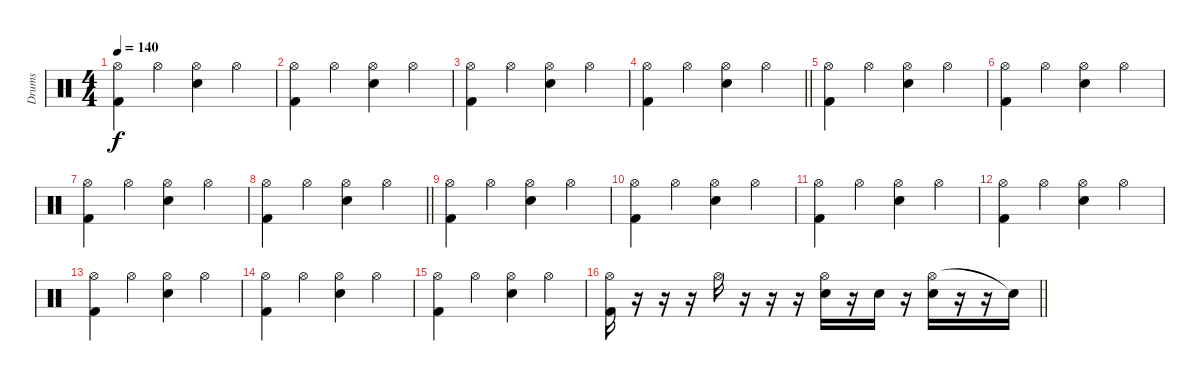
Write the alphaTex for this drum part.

\track ("Drums" "Drums") {instrument percussion}
\staff {score}
\articulation defaults
\ts (4 4)
\tempo 140
\clef neutral
\ks c
("Hi-Hat (open)" "Kick (hit) 2").4{dy f} "Hi-Hat (open)".4 ("Hi-Hat (open)" "Snare (hit) 2").4 "Hi-Hat (open)".4 |
("Hi-Hat (open)" "Kick (hit) 2").4 "Hi-Hat (open)".4 ("Hi-Hat (open)" "Snare (hit) 2").4 "Hi-Hat (open)".4 |
("Hi-Hat (open)" "Kick (hit) 2").4 "Hi-Hat (open)".4 ("Hi-Hat (open)" "Snare (hit) 2").4 "Hi-Hat (open)".4 |
\barLineRight lightlight
("Hi-Hat (open)" "Kick (hit) 2").4 "Hi-Hat (open)".4 ("Hi-Hat (open)" "Snare (hit) 2").4 "Hi-Hat (open)".4 |
("Hi-Hat (open)" "Kick (hit) 2").4 "Hi-Hat (open)".4 ("Hi-Hat (open)" "Snare (hit) 2").4 "Hi-Hat (open)".4 |
("Hi-Hat (open)" "Kick (hit) 2").4 "Hi-Hat (open)".4 ("Hi-Hat (open)" "Snare (hit) 2").4 "Hi-Hat (open)".4 |
("Hi-Hat (open)" "Kick (hit) 2").4 "Hi-Hat (open)".4 ("Hi-Hat (open)" "Snare (hit) 2").4 "Hi-Hat (open)".4 |
\barLineRight lightlight
("Hi-Hat (open)" "Kick (hit) 2").4 "Hi-Hat (open)".4 ("Hi-Hat (open)" "Snare (hit) 2").4 "Hi-Hat (open)".4 |
("Hi-Hat (open)" "Kick (hit) 2").4 "Hi-Hat (open)".4 ("Hi-Hat (open)" "Snare (hit) 2").4 "Hi-Hat (open)".4 |
("Hi-Hat (open)" "Kick (hit) 2").4 "Hi-Hat (open)".4 ("Hi-Hat (open)" "Snare (hit) 2").4 "Hi-Hat (open)".4 |
("Hi-Hat (open)" "Kick (hit) 2").4 "Hi-Hat (open)".4 ("Hi-Hat (open)" "Snare (hit) 2").4 "Hi-Hat (open)".4 |
("Hi-Hat (open)" "Kick (hit) 2").4 "Hi-Hat (open)".4 ("Hi-Hat (open)" "Snare (hit) 2").4 "Hi-Hat (open)".4 |
("Hi-Hat (open)" "Kick (hit) 2").4 "Hi-Hat (open)".4 ("Hi-Hat (open)" "Snare (hit) 2").4 "Hi-Hat (open)".4 |
("Hi-Hat (open)" "Kick (hit) 2").4 "Hi-Hat (open)".4 ("Hi-Hat (open)" "Snare (hit) 2").4 "Hi-Hat (open)".4 |
("Hi-Hat (open)" "Kick (hit) 2").4 "Hi-Hat (open)".4 ("Hi-Hat (open)" "Snare (hit) 2").4 "Hi-Hat (open)".4 |
\barLineRight lightlight
("Hi-Hat (open)" "Kick (hit) 2").16 r.16 r.16 r.16 "Hi-Hat (open)".16 r.16 r.16 r.16 ("Hi-Hat (open)" "Snare (hit) 2").16 r.16 "Snare (hit) 2".16 r.16 ("Hi-Hat (open)" "Snare (hit) 2").16 r.16 r.16 "Snare (hit)"{t}.16
